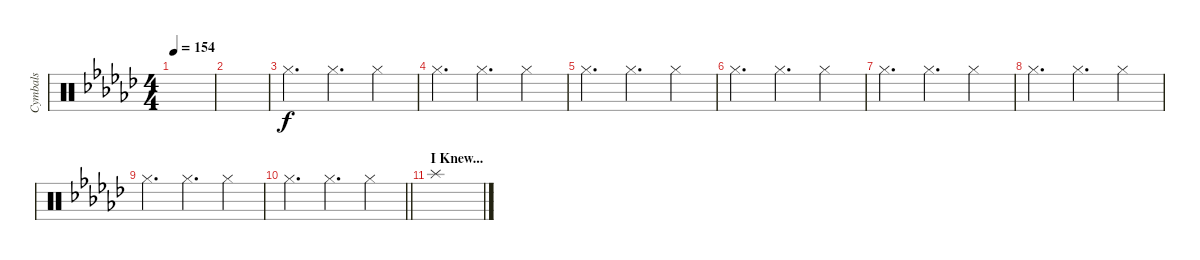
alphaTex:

\track ("Cymbals" "Cymbals") {instrument percussion}
\staff {score}
\articulation defaults
\ts (4 4)
\tempo 154
\clef neutral
\ks gb
|
|
"Hi-Hat (closed)".4{d} "Hi-Hat (closed)".4{d} "Hi-Hat (closed)".4 |
"Hi-Hat (closed)".4{d} "Hi-Hat (closed)".4{d} "Hi-Hat (closed)".4 |
"Hi-Hat (closed)".4{d} "Hi-Hat (closed)".4{d} "Hi-Hat (closed)".4 |
"Hi-Hat (closed)".4{d} "Hi-Hat (closed)".4{d} "Hi-Hat (closed)".4 |
"Hi-Hat (closed)".4{d} "Hi-Hat (closed)".4{d} "Hi-Hat (closed)".4 |
"Hi-Hat (closed)".4{d} "Hi-Hat (closed)".4{d} "Hi-Hat (closed)".4 |
"Hi-Hat (closed)".4{d} "Hi-Hat (closed)".4{d} "Hi-Hat (closed)".4 |
\barLineRight lightlight "Hi-Hat (closed)".4{d} "Hi-Hat (closed)".4{d} "Hi-Hat (closed)".4
|
\section ("" "I Knew...")
"Splash (hit)".1
